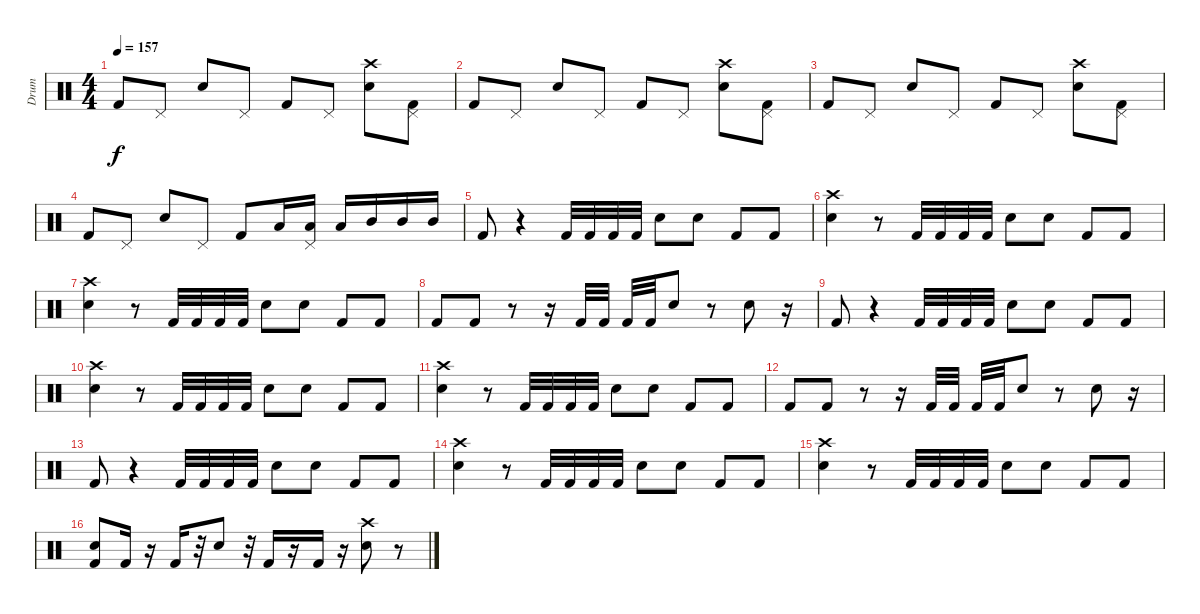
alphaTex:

\track ("Drum" "Drum") {instrument percussion}
\staff {score}
\articulation defaults
\ts (4 4)
\tempo 157
\clef neutral
\ks c "Kick (hit) 2".8{dy f} "Pedal Hi-Hat (hit)".8 "Electric Snare (hit)".8 "Pedal Hi-Hat (hit)".8 "Kick (hit) 2".8 "Pedal Hi-Hat (hit)".8
("Crash high (hit)" "Electric Snare (hit)").8 ("Pedal Hi-Hat (hit)" "Kick (hit) 2").8 |
"Kick (hit) 2".8 "Pedal Hi-Hat (hit)".8 "Electric Snare (hit)".8 "Pedal Hi-Hat (hit)".8 "Kick (hit) 2".8 "Pedal Hi-Hat (hit)".8 ("Crash high (hit)" "Electric Snare (hit)").8 ("Pedal Hi-Hat (hit)" "Kick (hit) 2").8 |
"Kick (hit) 2".8 "Pedal Hi-Hat (hit)".8 "Electric Snare (hit)".8 "Pedal Hi-Hat (hit)".8 "Kick (hit) 2".8 "Pedal Hi-Hat (hit)".8 ("Crash high (hit)" "Electric Snare (hit)").8 ("Pedal Hi-Hat (hit)" "Kick (hit) 2").8 |
"Kick (hit) 2".8 "Pedal Hi-Hat (hit)".8 "Electric Snare (hit)".8 "Pedal Hi-Hat (hit)".8 "Kick (hit) 2".8 "Low Floor Tom (hit)".16 ("Pedal Hi-Hat (hit)" "Low Floor Tom (hit)").16 "Low Floor Tom (hit)".16 "Mid Tom (hit)".16 "Mid Tom (hit)".16 "Mid Tom (hit)".16 |
"Kick (hit) 2".8 r.4 "Kick (hit) 2".32 "Kick (hit) 2".32 "Kick (hit) 2".32 "Kick (hit) 2".32 "Electric Snare (hit)".8 "Electric Snare (hit)".8 "Kick (hit) 2".8 "Kick (hit) 2".8 |
("Crash high (hit)" "Electric Snare (hit)").4 r.8 "Kick (hit) 2".32 "Kick (hit) 2".32 "Kick (hit) 2".32 "Kick (hit) 2".32 "Electric Snare (hit)".8 "Electric Snare (hit)".8 "Kick (hit) 2".8 "Kick (hit) 2".8 |
("Crash high (hit)" "Electric Snare (hit)").4 r.8 "Kick (hit) 2".32 "Kick (hit) 2".32 "Kick (hit) 2".32 "Kick (hit) 2".32 "Electric Snare (hit)".8 "Electric Snare (hit)".8 "Kick (hit) 2".8 "Kick (hit) 2".8 |
"Kick (hit) 2".8 "Kick (hit) 2".8 r.8 r.16 "Kick (hit) 2".32 "Kick (hit) 2".32 "Kick (hit) 2".32 "Kick (hit) 2".32 "Electric Snare (hit)".8 r.8 "Electric Snare (hit)".8 r.16 |
"Kick (hit) 2".8 r.4 "Kick (hit) 2".32 "Kick (hit) 2".32 "Kick (hit) 2".32 "Kick (hit) 2".32 "Electric Snare (hit)".8 "Electric Snare (hit)".8 "Kick (hit) 2".8 "Kick (hit) 2".8 |
("Crash high (hit)" "Electric Snare (hit)").4 r.8 "Kick (hit) 2".32 "Kick (hit) 2".32 "Kick (hit) 2".32 "Kick (hit) 2".32 "Electric Snare (hit)".8 "Electric Snare (hit)".8 "Kick (hit) 2".8 "Kick (hit) 2".8 |
("Crash high (hit)" "Electric Snare (hit)").4 r.8 "Kick (hit) 2".32 "Kick (hit) 2".32 "Kick (hit) 2".32 "Kick (hit) 2".32 "Electric Snare (hit)".8 "Electric Snare (hit)".8 "Kick (hit) 2".8 "Kick (hit) 2".8 |
"Kick (hit) 2".8 "Kick (hit) 2".8 r.8 r.16 "Kick (hit) 2".32 "Kick (hit) 2".32 "Kick (hit) 2".32 "Kick (hit) 2".32 "Electric Snare (hit)".8 r.8 "Electric Snare (hit)".8 r.16 |
"Kick (hit) 2".8 r.4 "Kick (hit) 2".32 "Kick (hit) 2".32 "Kick (hit) 2".32 "Kick (hit) 2".32 "Electric Snare (hit)".8 "Electric Snare (hit)".8 "Kick (hit) 2".8 "Kick (hit) 2".8 |
("Crash high (hit)" "Electric Snare (hit)").4 r.8 "Kick (hit) 2".32 "Kick (hit) 2".32 "Kick (hit) 2".32 "Kick (hit) 2".32 "Electric Snare (hit)".8 "Electric Snare (hit)".8 "Kick (hit) 2".8 "Kick (hit) 2".8 |
("Crash high (hit)" "Electric Snare (hit)").4 r.8 "Kick (hit) 2".32 "Kick (hit) 2".32 "Kick (hit) 2".32 "Kick (hit) 2".32 "Electric Snare (hit)".8 "Electric Snare (hit)".8 "Kick (hit) 2".8 "Kick (hit) 2".8 |
("Electric Snare (hit)" "Kick (hit) 2").8 "Kick (hit) 2".16 r.16 "Kick (hit) 2".16 r.32 "Electric Snare (hit)".8 r.32 "Kick (hit) 2".16 r.16 "Kick (hit) 2".16 r.16 ("Crash high (hit)" "Electric Snare (hit)").8 r.8
